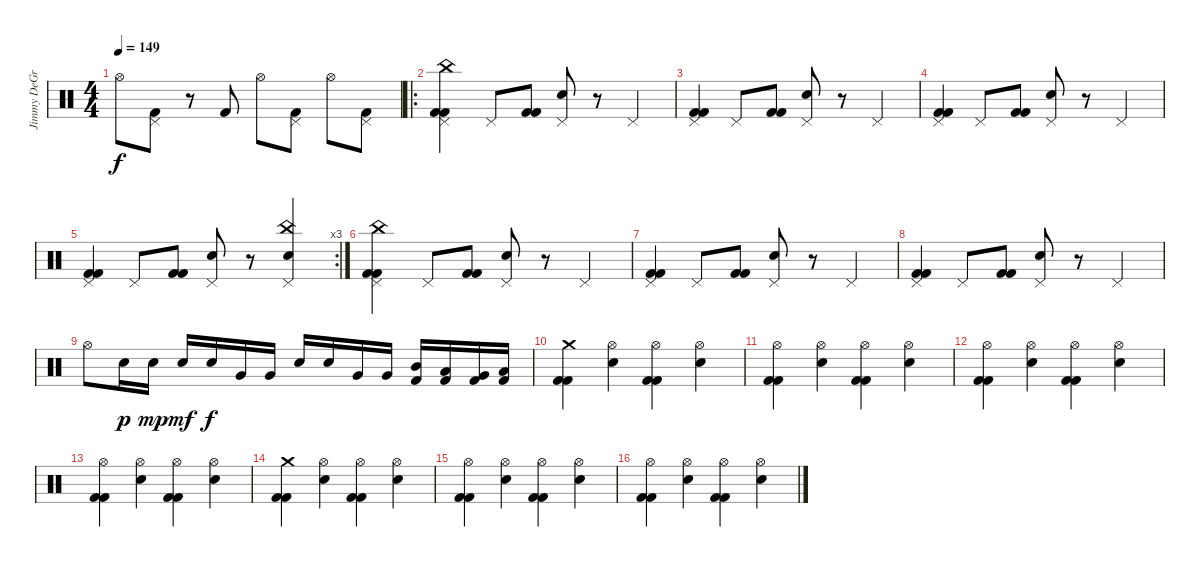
\track ("Jimmy DeGrasso" "Jimmy DeGr") {instrument percussion}
\staff {score}
\articulation defaults
\ts (4 4)
\tempo 149
\clef neutral
\ks c "Hi-Hat (open)".8{dy f}
("Pedal Hi-Hat (hit)" "Kick (hit) 2").8 r.8 "Kick (hit) 2".8 "Hi-Hat (open)".8 ("Pedal Hi-Hat (hit)" "Kick (hit) 2").8 "Hi-Hat (open)".8 ("Pedal Hi-Hat (hit)" "Kick (hit) 2").8 |
\ro
("Pedal Hi-Hat (hit)" "China (hit)" "Kick (hit) 2" "Kick (hit) 2").4 "Pedal Hi-Hat (hit)".8 ("Kick (hit) 2" "Kick (hit) 2").8 ("Pedal Hi-Hat (hit)" "Snare (hit) 2").8 r.8 "Pedal Hi-Hat (hit)".4 |
("Pedal Hi-Hat (hit)" "Kick (hit) 2" "Kick (hit) 2").4 "Pedal Hi-Hat (hit)".8 ("Kick (hit) 2" "Kick (hit) 2").8 ("Pedal Hi-Hat (hit)" "Snare (hit) 2").8 r.8 "Pedal Hi-Hat (hit)".4 |
("Pedal Hi-Hat (hit)" "Kick (hit) 2" "Kick (hit) 2").4 "Pedal Hi-Hat (hit)".8 ("Kick (hit) 2" "Kick (hit) 2").8 ("Pedal Hi-Hat (hit)" "Snare (hit) 2").8 r.8 "Pedal Hi-Hat (hit)".4 |
\rc 3
("Pedal Hi-Hat (hit)" "Kick (hit) 2" "Kick (hit) 2").4 "Pedal Hi-Hat (hit)".8 ("Kick (hit) 2" "Kick (hit) 2").8 ("Pedal Hi-Hat (hit)" "Snare (hit) 2").8 r.8 ("Pedal Hi-Hat (hit)" "China (hit)" "Snare (hit) 2").4 |
("Pedal Hi-Hat (hit)" "China (hit)" "Kick (hit) 2" "Kick (hit) 2").4 "Pedal Hi-Hat (hit)".8 ("Kick (hit) 2" "Kick (hit) 2").8 ("Pedal Hi-Hat (hit)" "Snare (hit) 2").8 r.8 "Pedal Hi-Hat (hit)".4 |
("Pedal Hi-Hat (hit)" "Kick (hit) 2" "Kick (hit) 2").4 "Pedal Hi-Hat (hit)".8 ("Kick (hit) 2" "Kick (hit) 2").8 ("Pedal Hi-Hat (hit)" "Snare (hit) 2").8 r.8 "Pedal Hi-Hat (hit)".4 |
("Pedal Hi-Hat (hit)" "Kick (hit) 2" "Kick (hit) 2").4 "Pedal Hi-Hat (hit)".8 ("Kick (hit) 2" "Kick (hit) 2").8 ("Pedal Hi-Hat (hit)" "Snare (hit) 2").8 r.8 "Pedal Hi-Hat (hit)".4 |
"Hi-Hat (open)".8 "Snare (hit) 2".16{dy p} "Snare (hit) 2".16{dy mp} "Snare (hit) 2".16{dy mf} "Snare (hit) 2".16{dy f} "Very Low Tom (hit)".16 "Very Low Tom (hit)".16 "Snare (hit) 2".16 "Snare (hit) 2".16 "Very Low Tom (hit)".16 "Very Low Tom (hit)".16 ("Mid Tom (hit)" "Kick (hit) 2").16 ("Low Tom (hit)" "Kick (hit) 2").16 ("Very Low Tom (hit)" "Kick (hit) 2").16 ("Low Floor Tom (hit)" "Kick (hit) 2").16 |
("Crash medium (hit)" "Kick (hit) 2" "Kick (hit) 2").4 ("Hi-Hat (open)" "Snare (hit) 2").4 ("Hi-Hat (open)" "Kick (hit) 2" "Kick (hit) 2").4 ("Hi-Hat (open)" "Snare (hit) 2").4 |
("Hi-Hat (open)" "Kick (hit) 2" "Kick (hit) 2").4 ("Hi-Hat (open)" "Snare (hit) 2").4 ("Hi-Hat (open)" "Kick (hit) 2" "Kick (hit) 2").4 ("Hi-Hat (open)" "Snare (hit) 2").4 |
("Hi-Hat (open)" "Kick (hit) 2" "Kick (hit) 2").4 ("Hi-Hat (open)" "Snare (hit) 2").4 ("Hi-Hat (open)" "Kick (hit) 2" "Kick (hit) 2").4 ("Hi-Hat (open)" "Snare (hit) 2").4 |
("Hi-Hat (open)" "Kick (hit) 2" "Kick (hit) 2").4 ("Hi-Hat (open)" "Snare (hit) 2").4 ("Hi-Hat (open)" "Kick (hit) 2" "Kick (hit) 2").4 ("Hi-Hat (open)" "Snare (hit) 2").4 |
("Crash medium (hit)" "Kick (hit) 2" "Kick (hit) 2").4 ("Hi-Hat (open)" "Snare (hit) 2").4 ("Hi-Hat (open)" "Kick (hit) 2" "Kick (hit) 2").4 ("Hi-Hat (open)" "Snare (hit) 2").4 |
("Hi-Hat (open)" "Kick (hit) 2" "Kick (hit) 2").4 ("Hi-Hat (open)" "Snare (hit) 2").4 ("Hi-Hat (open)" "Kick (hit) 2" "Kick (hit) 2").4 ("Hi-Hat (open)" "Snare (hit) 2").4 |
("Hi-Hat (open)" "Kick (hit) 2" "Kick (hit) 2").4 ("Hi-Hat (open)" "Snare (hit) 2").4 ("Hi-Hat (open)" "Kick (hit) 2" "Kick (hit) 2").4 ("Hi-Hat (open)" "Snare (hit) 2").4
